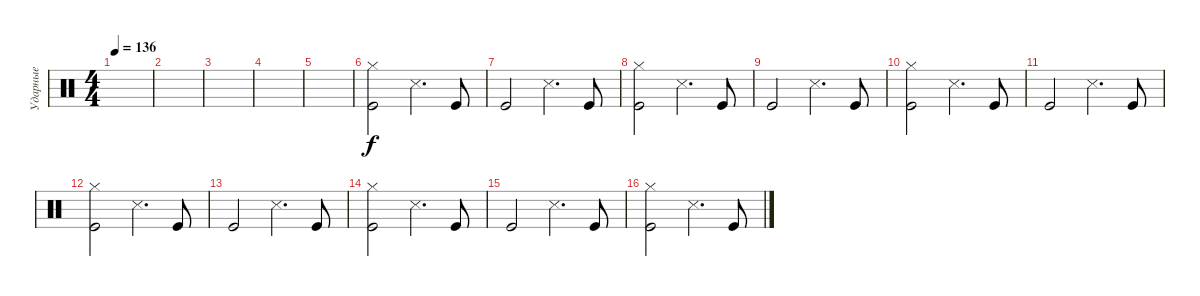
\track ("Ударные" "Ударные") {instrument percussion}
\staff {score}
\articulation defaults
\ts (4 4)
\tempo 136
\clef neutral
\ks c
|
|
|
|
|
("Kick (hit)" "Hi-Hat (closed)").2 "Snare (side stick) 3".4{d} "Kick (hit)".8 |
"Kick (hit)".2 "Snare (side stick) 3".4{d} "Kick (hit)".8 |
("Kick (hit)" "Hi-Hat (closed)").2 "Snare (side stick) 3".4{d} "Kick (hit)".8 |
"Kick (hit)".2 "Snare (side stick) 3".4{d} "Kick (hit)".8 |
("Kick (hit)" "Hi-Hat (closed)").2 "Snare (side stick) 3".4{d} "Kick (hit)".8 |
"Kick (hit)".2 "Snare (side stick) 3".4{d} "Kick (hit)".8 |
("Kick (hit)" "Hi-Hat (closed)").2 "Snare (side stick) 3".4{d} "Kick (hit)".8 |
"Kick (hit)".2 "Snare (side stick) 3".4{d} "Kick (hit)".8 |
("Kick (hit)" "Hi-Hat (closed)").2 "Snare (side stick) 3".4{d} "Kick (hit)".8 |
"Kick (hit)".2 "Snare (side stick) 3".4{d} "Kick (hit)".8 |
("Kick (hit)" "Hi-Hat (closed)").2 "Snare (side stick) 3".4{d} "Kick (hit)".8
